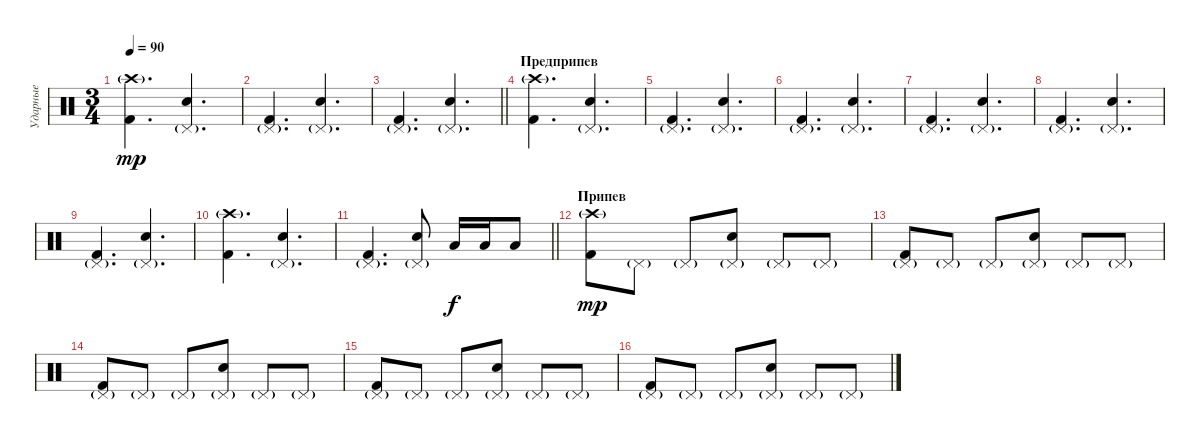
\track ("Ударные" "Ударные") {instrument percussion}
\staff {score}
\articulation defaults
\ts (3 4)
\tempo 90
\clef neutral
\ks c
("Kick (hit) 2" "Crash high (hit)"{g}).4{d dy mp} ("Electric Snare (hit)" "Pedal Hi-Hat (hit)"{g}).4{d} |
("Kick (hit) 2" "Pedal Hi-Hat (hit)"{g}).4{d} ("Electric Snare (hit)" "Pedal Hi-Hat (hit)"{g}).4{d} |
\barLineRight lightlight
("Kick (hit) 2" "Pedal Hi-Hat (hit)"{g}).4{d} ("Electric Snare (hit)" "Pedal Hi-Hat (hit)"{g}).4{d} |
\section ("" "Предприпев")
("Kick (hit) 2" "Crash high (hit)"{g}).4{d} ("Electric Snare (hit)" "Pedal Hi-Hat (hit)"{g}).4{d} |
("Kick (hit) 2" "Pedal Hi-Hat (hit)"{g}).4{d} ("Electric Snare (hit)" "Pedal Hi-Hat (hit)"{g}).4{d} |
("Kick (hit) 2" "Pedal Hi-Hat (hit)"{g}).4{d} ("Electric Snare (hit)" "Pedal Hi-Hat (hit)"{g}).4{d} |
("Kick (hit) 2" "Pedal Hi-Hat (hit)"{g}).4{d} ("Electric Snare (hit)" "Pedal Hi-Hat (hit)"{g}).4{d} |
("Kick (hit) 2" "Pedal Hi-Hat (hit)"{g}).4{d} ("Electric Snare (hit)" "Pedal Hi-Hat (hit)"{g}).4{d} |
("Kick (hit) 2" "Pedal Hi-Hat (hit)"{g}).4{d} ("Electric Snare (hit)" "Pedal Hi-Hat (hit)"{g}).4{d} |
("Kick (hit) 2" "Crash high (hit)"{g}).4{d} ("Electric Snare (hit)" "Pedal Hi-Hat (hit)"{g}).4{d} |
\barLineRight lightlight
("Kick (hit) 2" "Pedal Hi-Hat (hit)"{g}).4{d} ("Electric Snare (hit)" "Pedal Hi-Hat (hit)"{g}).8 "Low Tom (hit)".16{dy f} "Low Tom (hit)".16 "Low Tom (hit)".8 |
\section ("" "Припев")
("Kick (hit) 2" "Crash high (hit)"{g}).8{dy mp} "Pedal Hi-Hat (hit)"{g}.8 "Pedal Hi-Hat (hit)"{g}.8 ("Electric Snare (hit)" "Pedal Hi-Hat (hit)"{g}).8 "Pedal Hi-Hat (hit)"{g}.8 "Pedal Hi-Hat (hit)"{g}.8 |
("Kick (hit) 2" "Pedal Hi-Hat (hit)"{g}).8 "Pedal Hi-Hat (hit)"{g}.8 "Pedal Hi-Hat (hit)"{g}.8 ("Electric Snare (hit)" "Pedal Hi-Hat (hit)"{g}).8 "Pedal Hi-Hat (hit)"{g}.8 "Pedal Hi-Hat (hit)"{g}.8 |
("Kick (hit) 2" "Pedal Hi-Hat (hit)"{g}).8 "Pedal Hi-Hat (hit)"{g}.8 "Pedal Hi-Hat (hit)"{g}.8 ("Electric Snare (hit)" "Pedal Hi-Hat (hit)"{g}).8 "Pedal Hi-Hat (hit)"{g}.8 "Pedal Hi-Hat (hit)"{g}.8 |
("Kick (hit) 2" "Pedal Hi-Hat (hit)"{g}).8 "Pedal Hi-Hat (hit)"{g}.8 "Pedal Hi-Hat (hit)"{g}.8 ("Electric Snare (hit)" "Pedal Hi-Hat (hit)"{g}).8 "Pedal Hi-Hat (hit)"{g}.8 "Pedal Hi-Hat (hit)"{g}.8 |
("Kick (hit) 2" "Pedal Hi-Hat (hit)"{g}).8 "Pedal Hi-Hat (hit)"{g}.8 "Pedal Hi-Hat (hit)"{g}.8 ("Electric Snare (hit)" "Pedal Hi-Hat (hit)"{g}).8 "Pedal Hi-Hat (hit)"{g}.8 "Pedal Hi-Hat (hit)"{g}.8
